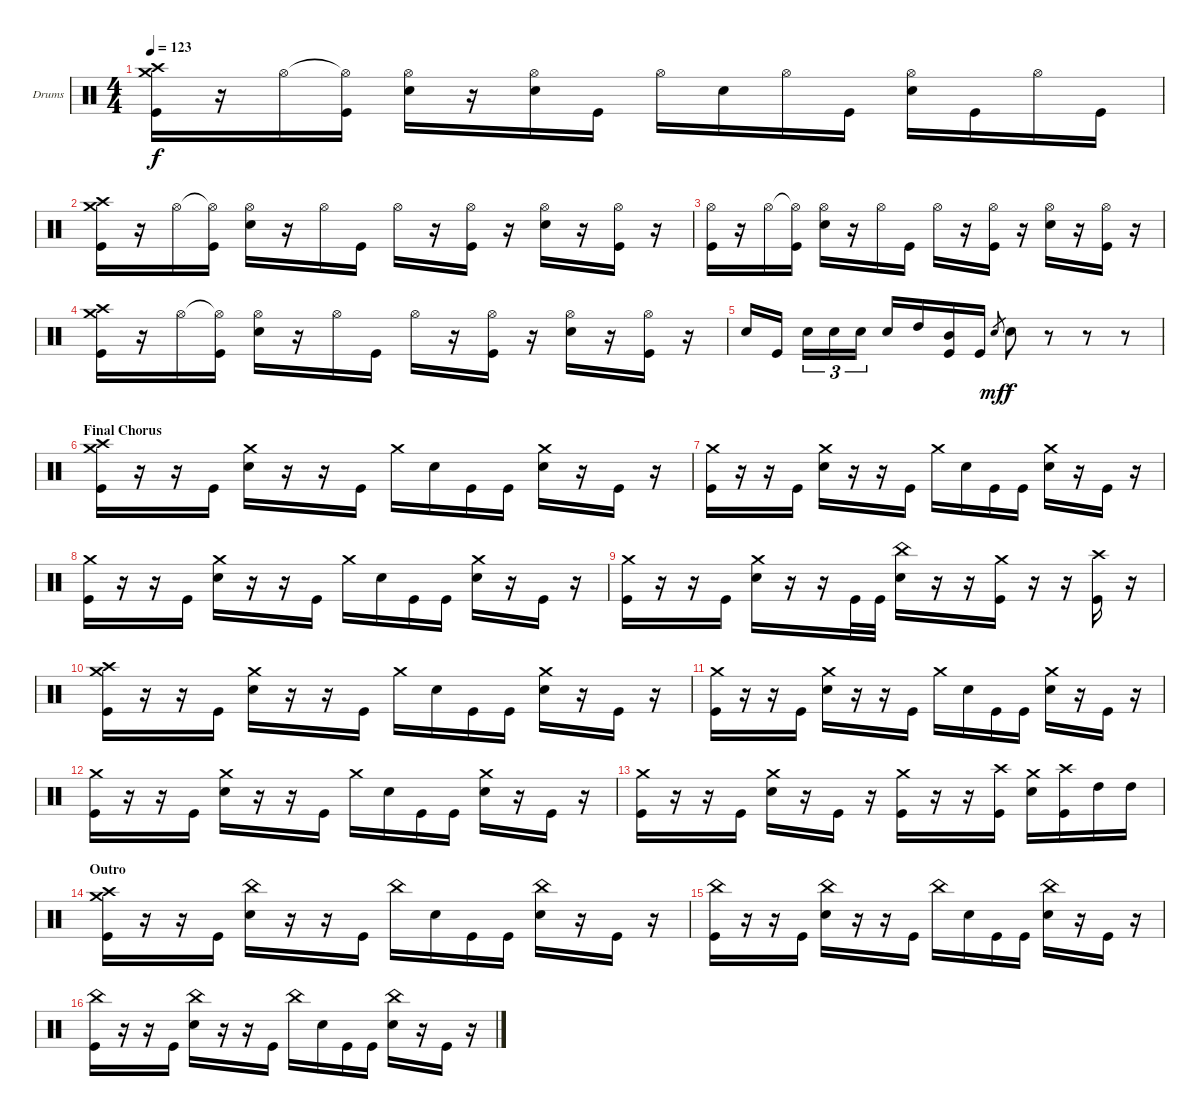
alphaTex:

\bracketExtendMode groupsimilarinstruments
\firstSystemTrackNameOrientation horizontal
\otherSystemsTrackNameOrientation horizontal
\track ("Drumkit" "Drums") {instrument percussion}
\staff {score}
\articulation defaults
\ts (4 4)
\tempo 123
\clef neutral
\ks c
("Crash medium (hit)" "Crash high (hit)" "Kick (hit)").16{dy f} r.16 "Hi-Hat (open)".16 ("Hi-Hat (open)"{t} "Kick (hit)").16 ("Hi-Hat (open)" "Snare (hit) 2").16 r.16 ("Hi-Hat (open)" "Snare (hit) 2").16 "Kick (hit)".16 "Hi-Hat (open)".16 "Snare (hit) 2".16 "Hi-Hat (open)".16 "Kick (hit)".16 ("Hi-Hat (open)" "Snare (hit) 2").16 "Kick (hit)".16 "Hi-Hat (open)".16 "Kick (hit)".16 |
("Crash medium (hit)" "Crash high (hit)" "Kick (hit)").16 r.16 "Hi-Hat (open)".16 ("Hi-Hat (open)"{t} "Kick (hit)").16 ("Hi-Hat (open)" "Snare (hit) 2").16 r.16 "Hi-Hat (open)".16 "Kick (hit)".16 "Hi-Hat (open)".16 r.16 ("Hi-Hat (open)" "Kick (hit)").16 r.16 ("Hi-Hat (open)" "Snare (hit) 2").16 r.16 ("Hi-Hat (open)" "Kick (hit)").16 r.16 |
("Hi-Hat (open)" "Kick (hit)").16 r.16 "Hi-Hat (open)".16 ("Hi-Hat (open)"{t} "Kick (hit)").16 ("Hi-Hat (open)" "Snare (hit) 2").16 r.16 "Hi-Hat (open)".16 "Kick (hit)".16 "Hi-Hat (open)".16 r.16 ("Hi-Hat (open)" "Kick (hit)").16 r.16 ("Hi-Hat (open)" "Snare (hit) 2").16 r.16 ("Hi-Hat (open)" "Kick (hit)").16 r.16 |
("Crash medium (hit)" "Crash high (hit)" "Kick (hit)").16 r.16 "Hi-Hat (open)".16 ("Hi-Hat (open)"{t} "Kick (hit)").16 ("Hi-Hat (open)" "Snare (hit) 2").16 r.16 "Hi-Hat (open)".16 "Kick (hit)".16 "Hi-Hat (open)".16 r.16 ("Hi-Hat (open)" "Kick (hit)").16 r.16 ("Hi-Hat (open)" "Snare (hit) 2").16 r.16 ("Hi-Hat (open)" "Kick (hit)").16 r.16 |
"Snare (hit) 2".16 "Kick (hit)".16 "Snare (hit) 2".16{tu (3 2)} "Snare (hit) 2".16{tu (3 2)} "Snare (hit) 2".16{tu (3 2)} "Snare (hit) 2".16 "High Tom (hit)".16 ("Mid Tom (hit)" "Kick (hit)").16 "Kick (hit)".16 "Snare (hit) 2".8{gr dy mf} "Snare (hit) 2".8{dy f} r.8 r.8 r.8 |
\section ("" "Final Chorus")
("Crash medium (hit)" "Crash high (hit)" "Kick (hit)").16 r.16 r.16 "Kick (hit)".16 ("Crash medium (hit)" "Snare (hit) 2").16 r.16 r.16 "Kick (hit)".16 "Crash medium (hit)".16 "Snare (hit) 2".16 "Kick (hit)".16 "Kick (hit)".16 ("Crash medium (hit)" "Snare (hit) 2").16 r.16 "Kick (hit)".16 r.16 |
("Crash medium (hit)" "Kick (hit)").16 r.16 r.16 "Kick (hit)".16 ("Crash medium (hit)" "Snare (hit) 2").16 r.16 r.16 "Kick (hit)".16 "Crash medium (hit)".16 "Snare (hit) 2".16 "Kick (hit)".16 "Kick (hit)".16 ("Crash medium (hit)" "Snare (hit) 2").16 r.16 "Kick (hit)".16 r.16 |
("Crash medium (hit)" "Kick (hit)").16 r.16 r.16 "Kick (hit)".16 ("Crash medium (hit)" "Snare (hit) 2").16 r.16 r.16 "Kick (hit)".16 "Crash medium (hit)".16 "Snare (hit) 2".16 "Kick (hit)".16 "Kick (hit)".16 ("Crash medium (hit)" "Snare (hit) 2").16 r.16 "Kick (hit)".16 r.16 |
("Crash medium (hit)" "Kick (hit)").16 r.16 r.16 "Kick (hit)".16 ("Crash medium (hit)" "Snare (hit) 2").16 r.16 r.16 "Kick (hit)".32 "Kick (hit)".32 ("China (hit)" "Snare (hit) 2").16 r.16 r.16 ("Crash medium (hit)" "Kick (hit)").16 r.16 r.16 ("Crash high (hit)" "Kick (hit)").16 r.16 |
("Crash medium (hit)" "Crash high (hit)" "Kick (hit)").16 r.16 r.16 "Kick (hit)".16 ("Crash medium (hit)" "Snare (hit) 2").16 r.16 r.16 "Kick (hit)".16 "Crash medium (hit)".16 "Snare (hit) 2".16 "Kick (hit)".16 "Kick (hit)".16 ("Crash medium (hit)" "Snare (hit) 2").16 r.16 "Kick (hit)".16 r.16 |
("Crash medium (hit)" "Kick (hit)").16 r.16 r.16 "Kick (hit)".16 ("Crash medium (hit)" "Snare (hit) 2").16 r.16 r.16 "Kick (hit)".16 "Crash medium (hit)".16 "Snare (hit) 2".16 "Kick (hit)".16 "Kick (hit)".16 ("Crash medium (hit)" "Snare (hit) 2").16 r.16 "Kick (hit)".16 r.16 |
("Crash medium (hit)" "Kick (hit)").16 r.16 r.16 "Kick (hit)".16 ("Crash medium (hit)" "Snare (hit) 2").16 r.16 r.16 "Kick (hit)".16 "Crash medium (hit)".16 "Snare (hit) 2".16 "Kick (hit)".16 "Kick (hit)".16 ("Crash medium (hit)" "Snare (hit) 2").16 r.16 "Kick (hit)".16 r.16 |
("Crash medium (hit)" "Kick (hit)").16 r.16 r.16 "Kick (hit)".16 ("Crash medium (hit)" "Snare (hit) 2").16 r.16 "Kick (hit)".16 r.16 ("Crash medium (hit)" "Kick (hit)").16 r.16 r.16 ("Crash high (hit)" "Kick (hit)").16 ("Crash medium (hit)" "Snare (hit) 2").16 ("Crash high (hit)" "Kick (hit)").16 "High Tom (hit)".16 "High Tom (hit)".16 |
\section ("" "Outro")
("Crash medium (hit)" "Crash high (hit)" "Kick (hit)").16 r.16 r.16 "Kick (hit)".16 ("China (hit)" "Snare (hit) 2").16 r.16 r.16 "Kick (hit)".16 "China (hit)".16 "Snare (hit) 2".16 "Kick (hit)".16 "Kick (hit)".16 ("China (hit)" "Snare (hit) 2").16 r.16 "Kick (hit)".16 r.16 |
("China (hit)" "Kick (hit)").16 r.16 r.16 "Kick (hit)".16 ("China (hit)" "Snare (hit) 2").16 r.16 r.16 "Kick (hit)".16 "China (hit)".16 "Snare (hit) 2".16 "Kick (hit)".16 "Kick (hit)".16 ("China (hit)" "Snare (hit) 2").16 r.16 "Kick (hit)".16 r.16 |
("China (hit)" "Kick (hit)").16 r.16 r.16 "Kick (hit)".16 ("China (hit)" "Snare (hit) 2").16 r.16 r.16 "Kick (hit)".16 "China (hit)".16 "Snare (hit) 2".16 "Kick (hit)".16 "Kick (hit)".16 ("China (hit)" "Snare (hit) 2").16 r.16 "Kick (hit)".16 r.16
